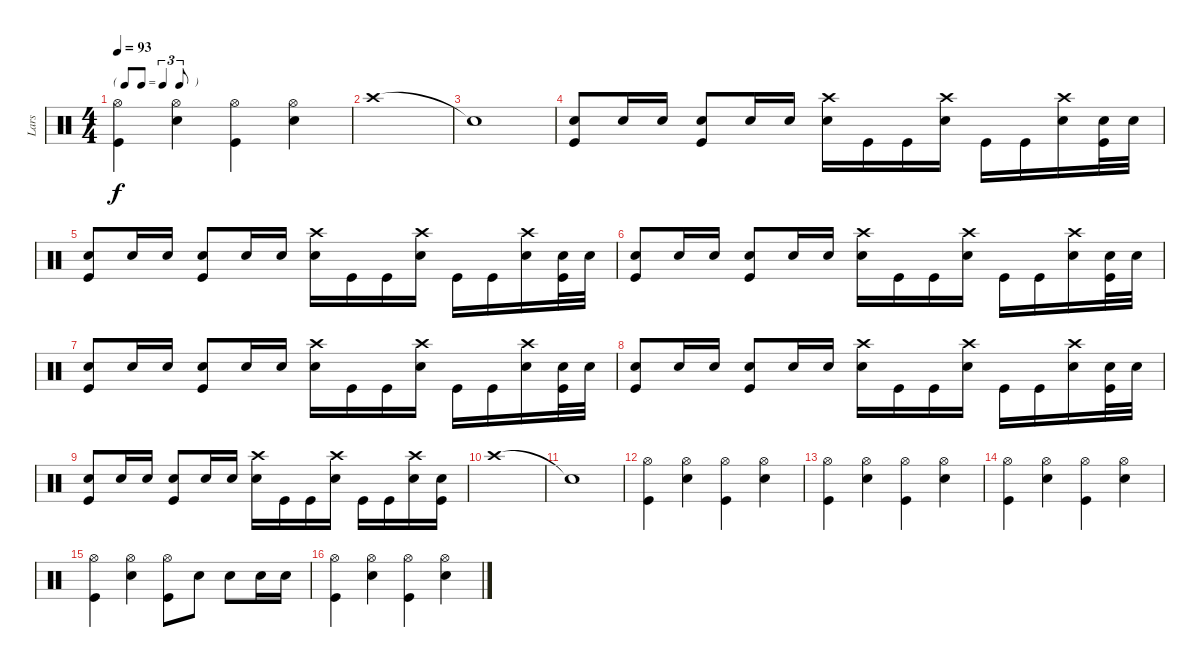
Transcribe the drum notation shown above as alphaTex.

\track ("Lars" "Lars") {instrument percussion}
\staff {score}
\articulation defaults
\ts (4 4)
\tf triplet8th
\tempo 93
\clef neutral
\ks c
("Hi-Hat (open)" "Kick (hit)").4{dy f} ("Hi-Hat (open)" "Snare (hit) 2").4 ("Hi-Hat (open)" "Kick (hit)").4 ("Hi-Hat (open)" "Snare (hit) 2").4 |
"Crash high (hit)".1 |
"Snare (hit)"{t}.1 |
("Snare (hit) 2" "Kick (hit)").8 "Snare (hit) 2".16 "Snare (hit) 2".16 ("Snare (hit) 2" "Kick (hit)").8 "Snare (hit) 2".16 "Snare (hit) 2".16 ("Crash high (hit)" "Snare (hit) 2").16 "Kick (hit)".16 "Kick (hit)".16 ("Crash high (hit)" "Snare (hit) 2").16 "Kick (hit)".16 "Kick (hit)".16 ("Crash high (hit)" "Snare (hit) 2").16 ("Snare (hit) 2" "Kick (hit)").32 "Snare (hit) 2".32 |
("Snare (hit) 2" "Kick (hit)").8 "Snare (hit) 2".16 "Snare (hit) 2".16 ("Snare (hit) 2" "Kick (hit)").8 "Snare (hit) 2".16 "Snare (hit) 2".16 ("Crash high (hit)" "Snare (hit) 2").16 "Kick (hit)".16 "Kick (hit)".16 ("Crash high (hit)" "Snare (hit) 2").16 "Kick (hit)".16 "Kick (hit)".16 ("Crash high (hit)" "Snare (hit) 2").16 ("Snare (hit) 2" "Kick (hit)").32 "Snare (hit) 2".32 |
("Snare (hit) 2" "Kick (hit)").8 "Snare (hit) 2".16 "Snare (hit) 2".16 ("Snare (hit) 2" "Kick (hit)").8 "Snare (hit) 2".16 "Snare (hit) 2".16 ("Crash high (hit)" "Snare (hit) 2").16 "Kick (hit)".16 "Kick (hit)".16 ("Crash high (hit)" "Snare (hit) 2").16 "Kick (hit)".16 "Kick (hit)".16 ("Crash high (hit)" "Snare (hit) 2").16 ("Snare (hit) 2" "Kick (hit)").32 "Snare (hit) 2".32 |
("Snare (hit) 2" "Kick (hit)").8 "Snare (hit) 2".16 "Snare (hit) 2".16 ("Snare (hit) 2" "Kick (hit)").8 "Snare (hit) 2".16 "Snare (hit) 2".16 ("Crash high (hit)" "Snare (hit) 2").16 "Kick (hit)".16 "Kick (hit)".16 ("Crash high (hit)" "Snare (hit) 2").16 "Kick (hit)".16 "Kick (hit)".16 ("Crash high (hit)" "Snare (hit) 2").16 ("Snare (hit) 2" "Kick (hit)").32 "Snare (hit) 2".32 |
("Snare (hit) 2" "Kick (hit)").8 "Snare (hit) 2".16 "Snare (hit) 2".16 ("Snare (hit) 2" "Kick (hit)").8 "Snare (hit) 2".16 "Snare (hit) 2".16 ("Crash high (hit)" "Snare (hit) 2").16 "Kick (hit)".16 "Kick (hit)".16 ("Crash high (hit)" "Snare (hit) 2").16 "Kick (hit)".16 "Kick (hit)".16 ("Crash high (hit)" "Snare (hit) 2").16 ("Snare (hit) 2" "Kick (hit)").32 "Snare (hit) 2".32 |
("Snare (hit) 2" "Kick (hit)").8 "Snare (hit) 2".16 "Snare (hit) 2".16 ("Snare (hit) 2" "Kick (hit)").8 "Snare (hit) 2".16 "Snare (hit) 2".16 ("Crash high (hit)" "Snare (hit) 2").16 "Kick (hit)".16 "Kick (hit)".16 ("Crash high (hit)" "Snare (hit) 2").16 "Kick (hit)".16 "Kick (hit)".16 ("Crash high (hit)" "Snare (hit) 2").16 ("Snare (hit) 2" "Kick (hit)").16 |
"Crash high (hit)".1 |
"Snare (hit)"{t}.1 |
("Hi-Hat (open)" "Kick (hit)").4 ("Hi-Hat (open)" "Snare (hit) 2").4 ("Hi-Hat (open)" "Kick (hit)").4 ("Hi-Hat (open)" "Snare (hit) 2").4 |
("Hi-Hat (open)" "Kick (hit)").4 ("Hi-Hat (open)" "Snare (hit) 2").4 ("Hi-Hat (open)" "Kick (hit)").4 ("Hi-Hat (open)" "Snare (hit) 2").4 |
("Hi-Hat (open)" "Kick (hit)").4 ("Hi-Hat (open)" "Snare (hit) 2").4 ("Hi-Hat (open)" "Kick (hit)").4 ("Hi-Hat (open)" "Snare (hit) 2").4 |
("Hi-Hat (open)" "Kick (hit)").4 ("Hi-Hat (open)" "Snare (hit) 2").4 ("Hi-Hat (open)" "Kick (hit)").8 "Snare (hit) 2".8 "Snare (hit) 2".8 "Snare (hit) 2".16 "Snare (hit) 2".16 |
("Hi-Hat (open)" "Kick (hit)").4 ("Hi-Hat (open)" "Snare (hit) 2").4 ("Hi-Hat (open)" "Kick (hit)").4 ("Hi-Hat (open)" "Snare (hit) 2").4
